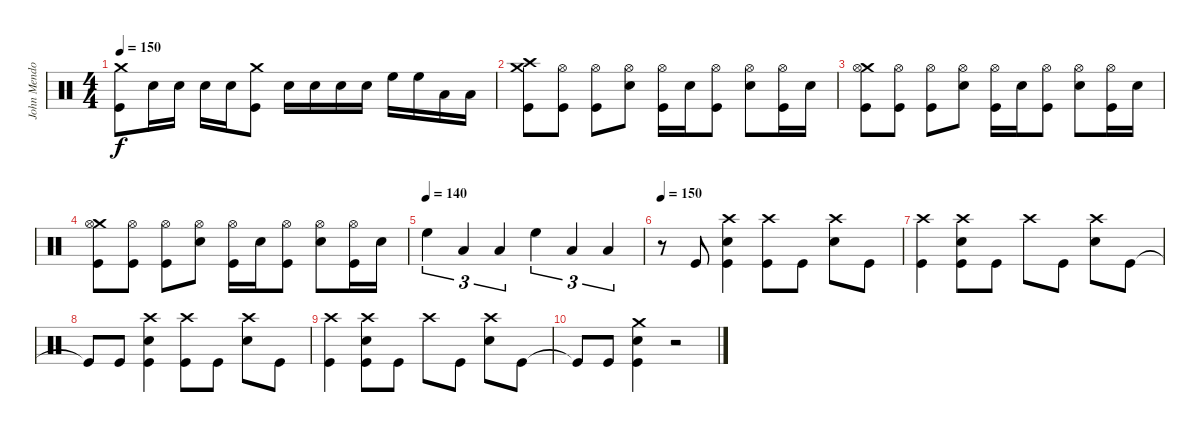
\track ("John Mendoza" "John Mendo") {instrument percussion}
\staff {score}
\articulation defaults
\ts (4 4)
\tempo 150
\clef neutral
\ks c
("Crash medium (hit)" "Kick (hit)").8{dy f} "Snare (hit) 2".16 "Snare (hit) 2".16 "Snare (hit) 2".16 "Snare (hit) 2".16 ("Crash medium (hit)" "Kick (hit)").8 "Snare (hit) 2".16 "Snare (hit) 2".16 "Snare (hit) 2".16 "Snare (hit) 2".16 "High Floor Tom (hit)".16 "High Floor Tom (hit)".16 "Low Tom (hit)".16 "Low Floor Tom (hit)".16 |
("Crash medium (hit)" "Crash high (hit)" "Kick (hit)").8 ("Hi-Hat (open)" "Kick (hit)").8 ("Hi-Hat (open)" "Kick (hit)").8 ("Hi-Hat (open)" "Snare (hit) 2").8 ("Hi-Hat (open)" "Kick (hit)").16 "Snare (hit) 2".16 ("Hi-Hat (open)" "Kick (hit)").8 ("Hi-Hat (open)" "Snare (hit) 2").8 ("Hi-Hat (open)" "Kick (hit)").16 "Snare (hit) 2".16 |
("Crash medium (hit)" "Hi-Hat (open)" "Kick (hit)").8 ("Hi-Hat (open)" "Kick (hit)").8 ("Hi-Hat (open)" "Kick (hit)").8 ("Hi-Hat (open)" "Snare (hit) 2").8 ("Hi-Hat (open)" "Kick (hit)").16 "Snare (hit) 2".16 ("Hi-Hat (open)" "Kick (hit)").8 ("Hi-Hat (open)" "Snare (hit) 2").8 ("Hi-Hat (open)" "Kick (hit)").16 "Snare (hit) 2".16 |
("Crash medium (hit)" "Hi-Hat (open)" "Kick (hit)").8 ("Hi-Hat (open)" "Kick (hit)").8 ("Hi-Hat (open)" "Kick (hit)").8 ("Hi-Hat (open)" "Snare (hit) 2").8 ("Hi-Hat (open)" "Kick (hit)").16 "Snare (hit) 2".16 ("Hi-Hat (open)" "Kick (hit)").8 ("Hi-Hat (open)" "Snare (hit) 2").8 ("Hi-Hat (open)" "Kick (hit)").16 "Snare (hit) 2".16 |
\tempo (140)
"High Floor Tom (hit)".4{tu (3 2)} "Low Tom (hit)".4{tu (3 2)} "Low Floor Tom (hit)".4{tu (3 2)} "High Floor Tom (hit)".4{tu (3 2)} "Low Tom (hit)".4{tu (3 2)} "Low Floor Tom (hit)".4{tu (3 2)} |
\tempo 150
r.8 "Kick (hit)".8 ("Crash high (hit)" "Snare (hit) 2" "Kick (hit)").4 ("Crash high (hit)" "Kick (hit)").8 "Kick (hit)".8 ("Crash high (hit)" "Snare (hit) 2").8 "Kick (hit)".8 |
("Crash high (hit)" "Kick (hit)").4 ("Crash high (hit)" "Snare (hit) 2" "Kick (hit)").8 "Kick (hit)".8 "Crash high (hit)".8 "Kick (hit)".8 ("Crash high (hit)" "Snare (hit) 2").8 "Kick (hit)".8 |
"Kick (hit)"{t}.8 "Kick (hit)".8 ("Crash high (hit)" "Snare (hit) 2" "Kick (hit)").4 ("Crash high (hit)" "Kick (hit)").8 "Kick (hit)".8 ("Crash high (hit)" "Snare (hit) 2").8 "Kick (hit)".8 |
("Crash high (hit)" "Kick (hit)").4 ("Crash high (hit)" "Snare (hit) 2" "Kick (hit)").8 "Kick (hit)".8 "Crash high (hit)".8 "Kick (hit)".8 ("Crash high (hit)" "Snare (hit) 2").8 "Kick (hit)".8 |
"Kick (hit)"{t}.8 "Kick (hit)".8 ("Crash medium (hit)" "Snare (hit) 2" "Kick (hit)").4 r.2
